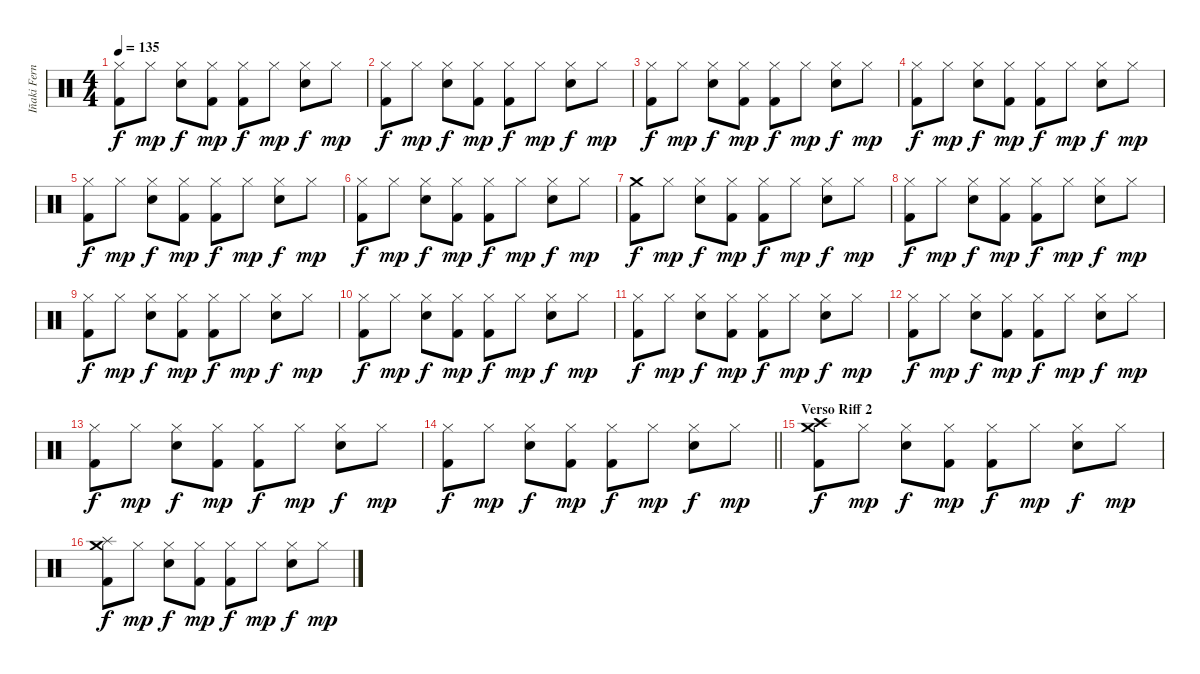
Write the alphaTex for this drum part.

\track ("Iñaki Fernández" "Iñaki Fern") {instrument percussion}
\staff {score}
\articulation defaults
\ts (4 4)
\tempo 135
\clef neutral
\ks c
("Hi-Hat (closed)" "Kick (hit) 2").8{dy f} "Hi-Hat (closed)".8{dy mp} ("Hi-Hat (closed)" "Snare (hit) 2").8{dy f} ("Hi-Hat (closed)" "Kick (hit) 2").8{dy mp} ("Hi-Hat (closed)" "Kick (hit) 2").8{dy f} "Hi-Hat (closed)".8{dy mp} ("Hi-Hat (closed)" "Snare (hit) 2").8{dy f} "Hi-Hat (closed)".8{dy mp} |
("Hi-Hat (closed)" "Kick (hit) 2").8{dy f} "Hi-Hat (closed)".8{dy mp} ("Hi-Hat (closed)" "Snare (hit) 2").8{dy f} ("Hi-Hat (closed)" "Kick (hit) 2").8{dy mp} ("Hi-Hat (closed)" "Kick (hit) 2").8{dy f} "Hi-Hat (closed)".8{dy mp} ("Hi-Hat (closed)" "Snare (hit) 2").8{dy f} "Hi-Hat (closed)".8{dy mp} |
("Hi-Hat (closed)" "Kick (hit) 2").8{dy f} "Hi-Hat (closed)".8{dy mp} ("Hi-Hat (closed)" "Snare (hit) 2").8{dy f} ("Hi-Hat (closed)" "Kick (hit) 2").8{dy mp} ("Hi-Hat (closed)" "Kick (hit) 2").8{dy f} "Hi-Hat (closed)".8{dy mp} ("Hi-Hat (closed)" "Snare (hit) 2").8{dy f} "Hi-Hat (closed)".8{dy mp} |
("Hi-Hat (closed)" "Kick (hit) 2").8{dy f} "Hi-Hat (closed)".8{dy mp} ("Hi-Hat (closed)" "Snare (hit) 2").8{dy f} ("Hi-Hat (closed)" "Kick (hit) 2").8{dy mp} ("Hi-Hat (closed)" "Kick (hit) 2").8{dy f} "Hi-Hat (closed)".8{dy mp} ("Hi-Hat (closed)" "Snare (hit) 2").8{dy f} "Hi-Hat (closed)".8{dy mp} |
("Hi-Hat (closed)" "Kick (hit) 2").8{dy f} "Hi-Hat (closed)".8{dy mp} ("Hi-Hat (closed)" "Snare (hit) 2").8{dy f} ("Hi-Hat (closed)" "Kick (hit) 2").8{dy mp} ("Hi-Hat (closed)" "Kick (hit) 2").8{dy f} "Hi-Hat (closed)".8{dy mp} ("Hi-Hat (closed)" "Snare (hit) 2").8{dy f} "Hi-Hat (closed)".8{dy mp} |
("Hi-Hat (closed)" "Kick (hit) 2").8{dy f} "Hi-Hat (closed)".8{dy mp} ("Hi-Hat (closed)" "Snare (hit) 2").8{dy f} ("Hi-Hat (closed)" "Kick (hit) 2").8{dy mp} ("Hi-Hat (closed)" "Kick (hit) 2").8{dy f} "Hi-Hat (closed)".8{dy mp} ("Hi-Hat (closed)" "Snare (hit) 2").8{dy f} "Hi-Hat (closed)".8{dy mp} |
("Crash medium (hit)" "Kick (hit) 2").8{dy f} "Hi-Hat (closed)".8{dy mp} ("Hi-Hat (closed)" "Snare (hit) 2").8{dy f} ("Hi-Hat (closed)" "Kick (hit) 2").8{dy mp} ("Hi-Hat (closed)" "Kick (hit) 2").8{dy f} "Hi-Hat (closed)".8{dy mp} ("Hi-Hat (closed)" "Snare (hit) 2").8{dy f} "Hi-Hat (closed)".8{dy mp} |
("Hi-Hat (closed)" "Kick (hit) 2").8{dy f} "Hi-Hat (closed)".8{dy mp} ("Hi-Hat (closed)" "Snare (hit) 2").8{dy f} ("Hi-Hat (closed)" "Kick (hit) 2").8{dy mp} ("Hi-Hat (closed)" "Kick (hit) 2").8{dy f} "Hi-Hat (closed)".8{dy mp} ("Hi-Hat (closed)" "Snare (hit) 2").8{dy f} "Hi-Hat (closed)".8{dy mp} |
("Hi-Hat (closed)" "Kick (hit) 2").8{dy f} "Hi-Hat (closed)".8{dy mp} ("Hi-Hat (closed)" "Snare (hit) 2").8{dy f} ("Hi-Hat (closed)" "Kick (hit) 2").8{dy mp} ("Hi-Hat (closed)" "Kick (hit) 2").8{dy f} "Hi-Hat (closed)".8{dy mp} ("Hi-Hat (closed)" "Snare (hit) 2").8{dy f} "Hi-Hat (closed)".8{dy mp} |
("Hi-Hat (closed)" "Kick (hit) 2").8{dy f} "Hi-Hat (closed)".8{dy mp} ("Hi-Hat (closed)" "Snare (hit) 2").8{dy f} ("Hi-Hat (closed)" "Kick (hit) 2").8{dy mp} ("Hi-Hat (closed)" "Kick (hit) 2").8{dy f} "Hi-Hat (closed)".8{dy mp} ("Hi-Hat (closed)" "Snare (hit) 2").8{dy f} "Hi-Hat (closed)".8{dy mp} |
("Hi-Hat (closed)" "Kick (hit) 2").8{dy f} "Hi-Hat (closed)".8{dy mp} ("Hi-Hat (closed)" "Snare (hit) 2").8{dy f} ("Hi-Hat (closed)" "Kick (hit) 2").8{dy mp} ("Hi-Hat (closed)" "Kick (hit) 2").8{dy f} "Hi-Hat (closed)".8{dy mp} ("Hi-Hat (closed)" "Snare (hit) 2").8{dy f} "Hi-Hat (closed)".8{dy mp} |
("Hi-Hat (closed)" "Kick (hit) 2").8{dy f} "Hi-Hat (closed)".8{dy mp} ("Hi-Hat (closed)" "Snare (hit) 2").8{dy f} ("Hi-Hat (closed)" "Kick (hit) 2").8{dy mp} ("Hi-Hat (closed)" "Kick (hit) 2").8{dy f} "Hi-Hat (closed)".8{dy mp} ("Hi-Hat (closed)" "Snare (hit) 2").8{dy f} "Hi-Hat (closed)".8{dy mp} |
("Hi-Hat (closed)" "Kick (hit) 2").8{dy f} "Hi-Hat (closed)".8{dy mp} ("Hi-Hat (closed)" "Snare (hit) 2").8{dy f} ("Hi-Hat (closed)" "Kick (hit) 2").8{dy mp} ("Hi-Hat (closed)" "Kick (hit) 2").8{dy f} "Hi-Hat (closed)".8{dy mp} ("Hi-Hat (closed)" "Snare (hit) 2").8{dy f} "Hi-Hat (closed)".8{dy mp} |
\barLineRight lightlight
("Hi-Hat (closed)" "Kick (hit) 2").8{dy f} "Hi-Hat (closed)".8{dy mp} ("Hi-Hat (closed)" "Snare (hit) 2").8{dy f} ("Hi-Hat (closed)" "Kick (hit) 2").8{dy mp} ("Hi-Hat (closed)" "Kick (hit) 2").8{dy f} "Hi-Hat (closed)".8{dy mp} ("Hi-Hat (closed)" "Snare (hit) 2").8{dy f} "Hi-Hat (closed)".8{dy mp} |
\section ("" "Verso Riff 2")
("Crash medium (hit)" "Crash high (hit)" "Kick (hit) 2").8{dy f} "Hi-Hat (closed)".8{dy mp} ("Hi-Hat (closed)" "Snare (hit) 2").8{dy f} ("Hi-Hat (closed)" "Kick (hit) 2").8{dy mp} ("Hi-Hat (closed)" "Kick (hit) 2").8{dy f} "Hi-Hat (closed)".8{dy mp} ("Hi-Hat (closed)" "Snare (hit) 2").8{dy f} "Hi-Hat (closed)".8{dy mp} |
("Splash (hit)" "Crash medium (hit)" "Kick (hit) 2").8{dy f} "Hi-Hat (closed)".8{dy mp} ("Hi-Hat (closed)" "Snare (hit) 2").8{dy f} ("Hi-Hat (closed)" "Kick (hit) 2").8{dy mp} ("Hi-Hat (closed)" "Kick (hit) 2").8{dy f} "Hi-Hat (closed)".8{dy mp} ("Hi-Hat (closed)" "Snare (hit) 2").8{dy f} "Hi-Hat (closed)".8{dy mp}
